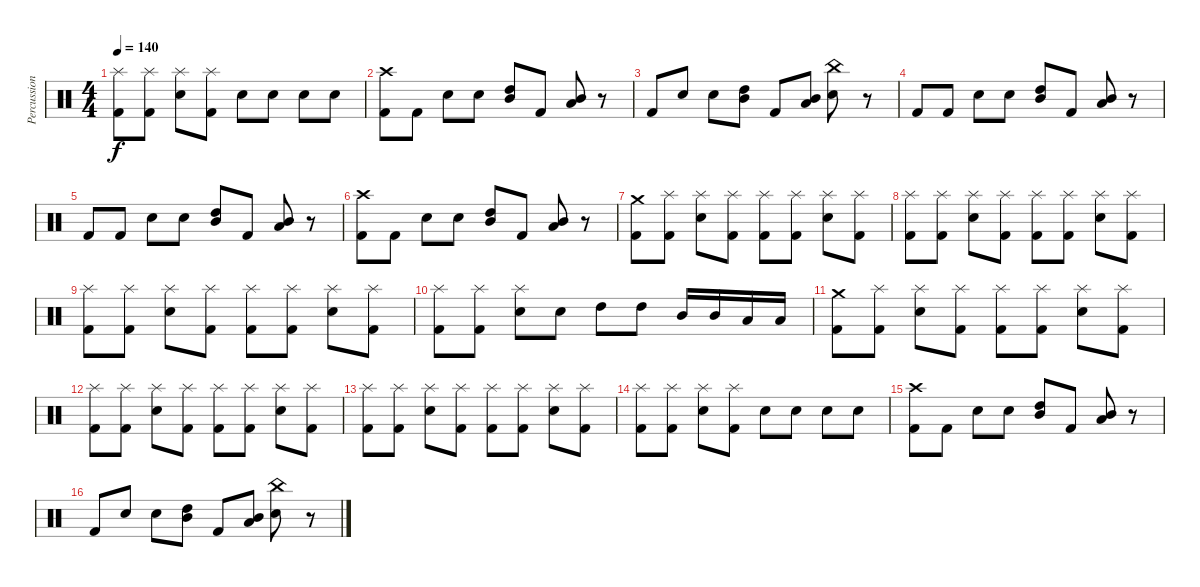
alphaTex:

\track ("Percussion" "Percussion") {instrument percussion}
\staff {score}
\articulation defaults
\ts (4 4)
\tempo 140
\clef neutral
\ks c
("Splash (hit)" "Kick (hit) 2").8{dy f} ("Splash (hit)" "Kick (hit) 2").8 ("Splash (hit)" "Electric Snare (hit)").8 ("Splash (hit)" "Kick (hit) 2").8 "Electric Snare (hit)".8 "Electric Snare (hit)".8 "Electric Snare (hit)".8 "Electric Snare (hit)".8 |
("Crash high (hit)" "Kick (hit) 2").8 "Kick (hit) 2".8 "Electric Snare (hit)".8 "Electric Snare (hit)".8 ("Mid Tom (hit)" "High Tom (hit)").8 "Kick (hit) 2".8 ("Low Tom (hit)" "Mid Tom (hit)").8 r.8 |
"Kick (hit) 2".8 "Electric Snare (hit)".8 "Electric Snare (hit)".8 ("High Tom (hit)" "Mid Tom (hit)").8 "Kick (hit) 2".8 ("Low Tom (hit)" "Mid Tom (hit)").8 ("China (hit)" "Electric Snare (hit)").8 r.8 |
"Kick (hit) 2".8 "Kick (hit) 2".8 "Electric Snare (hit)".8 "Electric Snare (hit)".8 ("Mid Tom (hit)" "High Tom (hit)").8 "Kick (hit) 2".8 ("Low Tom (hit)" "Mid Tom (hit)").8 r.8 |
"Kick (hit) 2".8 "Kick (hit) 2".8 "Electric Snare (hit)".8 "Electric Snare (hit)".8 ("Mid Tom (hit)" "High Tom (hit)").8 "Kick (hit) 2".8 ("Low Tom (hit)" "Mid Tom (hit)").8 r.8 |
("Crash high (hit)" "Kick (hit) 2").8 "Kick (hit) 2".8 "Electric Snare (hit)".8 "Electric Snare (hit)".8 ("Mid Tom (hit)" "High Tom (hit)").8 "Kick (hit) 2".8 ("Low Tom (hit)" "Mid Tom (hit)").8 r.8 |
("Crash medium (hit)" "Kick (hit) 2").8 ("Splash (hit)" "Kick (hit) 2").8 ("Splash (hit)" "Electric Snare (hit)").8 ("Splash (hit)" "Kick (hit) 2").8 ("Splash (hit)" "Kick (hit) 2").8 ("Splash (hit)" "Kick (hit) 2").8 ("Splash (hit)" "Electric Snare (hit)").8 ("Splash (hit)" "Kick (hit) 2").8 |
("Splash (hit)" "Kick (hit) 2").8 ("Splash (hit)" "Kick (hit) 2").8 ("Splash (hit)" "Electric Snare (hit)").8 ("Splash (hit)" "Kick (hit) 2").8 ("Splash (hit)" "Kick (hit) 2").8 ("Splash (hit)" "Kick (hit) 2").8 ("Splash (hit)" "Electric Snare (hit)").8 ("Splash (hit)" "Kick (hit) 2").8 |
("Splash (hit)" "Kick (hit) 2").8 ("Splash (hit)" "Kick (hit) 2").8 ("Splash (hit)" "Electric Snare (hit)").8 ("Splash (hit)" "Kick (hit) 2").8 ("Splash (hit)" "Kick (hit) 2").8 ("Splash (hit)" "Kick (hit) 2").8 ("Splash (hit)" "Electric Snare (hit)").8 ("Splash (hit)" "Kick (hit) 2").8 |
("Splash (hit)" "Kick (hit) 2").8 ("Splash (hit)" "Kick (hit) 2").8 ("Splash (hit)" "Electric Snare (hit)").8 "Electric Snare (hit)".8 "High Tom (hit)".8 "High Tom (hit)".8 "Mid Tom (hit)".16 "Mid Tom (hit)".16 "Low Tom (hit)".16 "Low Tom (hit)".16 |
("Crash medium (hit)" "Kick (hit) 2").8 ("Splash (hit)" "Kick (hit) 2").8 ("Splash (hit)" "Electric Snare (hit)").8 ("Splash (hit)" "Kick (hit) 2").8 ("Splash (hit)" "Kick (hit) 2").8 ("Splash (hit)" "Kick (hit) 2").8 ("Splash (hit)" "Electric Snare (hit)").8 ("Splash (hit)" "Kick (hit) 2").8 |
("Splash (hit)" "Kick (hit) 2").8 ("Splash (hit)" "Kick (hit) 2").8 ("Splash (hit)" "Electric Snare (hit)").8 ("Splash (hit)" "Kick (hit) 2").8 ("Splash (hit)" "Kick (hit) 2").8 ("Splash (hit)" "Kick (hit) 2").8 ("Splash (hit)" "Electric Snare (hit)").8 ("Splash (hit)" "Kick (hit) 2").8 |
("Splash (hit)" "Kick (hit) 2").8 ("Splash (hit)" "Kick (hit) 2").8 ("Splash (hit)" "Electric Snare (hit)").8 ("Splash (hit)" "Kick (hit) 2").8 ("Splash (hit)" "Kick (hit) 2").8 ("Splash (hit)" "Kick (hit) 2").8 ("Splash (hit)" "Electric Snare (hit)").8 ("Splash (hit)" "Kick (hit) 2").8 |
("Splash (hit)" "Kick (hit) 2").8 ("Splash (hit)" "Kick (hit) 2").8 ("Splash (hit)" "Electric Snare (hit)").8 ("Splash (hit)" "Kick (hit) 2").8 "Electric Snare (hit)".8 "Electric Snare (hit)".8 "Electric Snare (hit)".8 "Electric Snare (hit)".8 |
("Crash high (hit)" "Kick (hit) 2").8 "Kick (hit) 2".8 "Electric Snare (hit)".8 "Electric Snare (hit)".8 ("Mid Tom (hit)" "High Tom (hit)").8 "Kick (hit) 2".8 ("Low Tom (hit)" "Mid Tom (hit)").8 r.8 |
"Kick (hit) 2".8 "Electric Snare (hit)".8 "Electric Snare (hit)".8 ("High Tom (hit)" "Mid Tom (hit)").8 "Kick (hit) 2".8 ("Low Tom (hit)" "Mid Tom (hit)").8 ("China (hit)" "Electric Snare (hit)").8 r.8
